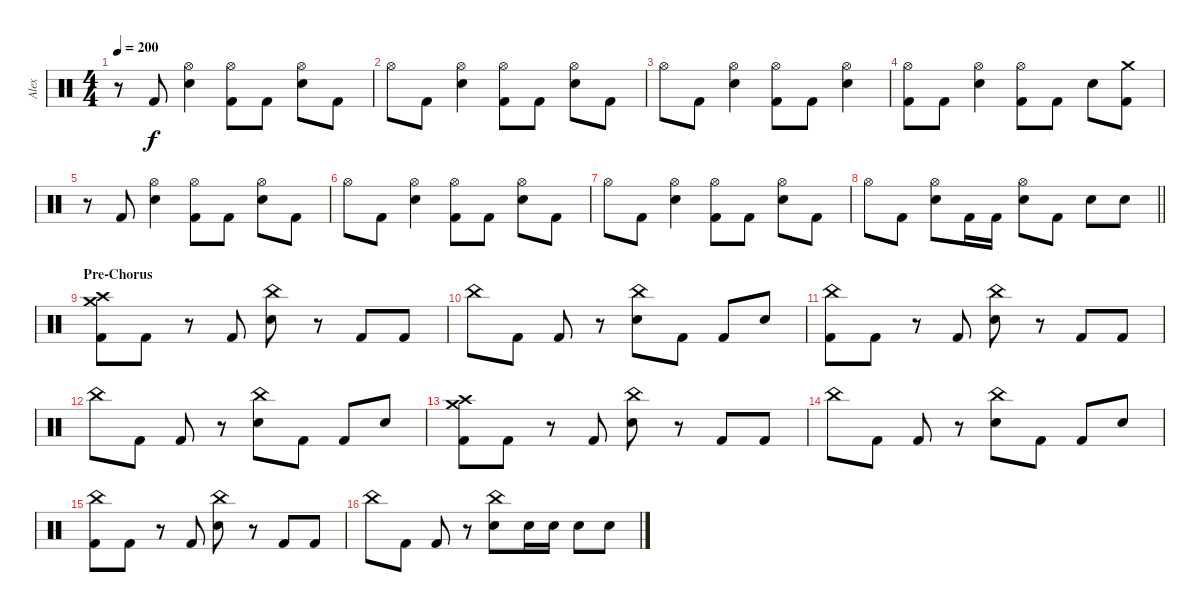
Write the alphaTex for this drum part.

\track ("Alex" "Alex") {instrument percussion}
\staff {score}
\articulation defaults
\ts (4 4)
\tempo 200
\clef neutral
\ks c
r.8{dy f} "Kick (hit) 2".8 ("Hi-Hat (open)" "Electric Snare (hit)").4 ("Hi-Hat (open)" "Kick (hit) 2").8 "Kick (hit) 2".8 ("Hi-Hat (open)" "Electric Snare (hit)").8 "Kick (hit) 2".8 |
"Hi-Hat (open)".8 "Kick (hit) 2".8 ("Hi-Hat (open)" "Electric Snare (hit)").4 ("Hi-Hat (open)" "Kick (hit) 2").8 "Kick (hit) 2".8 ("Hi-Hat (open)" "Electric Snare (hit)").8 "Kick (hit) 2".8 |
"Hi-Hat (open)".8 "Kick (hit) 2".8 ("Hi-Hat (open)" "Electric Snare (hit)").4 ("Hi-Hat (open)" "Kick (hit) 2").8 "Kick (hit) 2".8 ("Hi-Hat (open)" "Electric Snare (hit)").4 |
("Hi-Hat (open)" "Kick (hit) 2").8 "Kick (hit) 2".8 ("Hi-Hat (open)" "Electric Snare (hit)").4 ("Hi-Hat (open)" "Kick (hit) 2").8 "Kick (hit) 2".8 "Electric Snare (hit)".8 ("Crash medium (hit)" "Kick (hit) 2").8 |
r.8 "Kick (hit) 2".8 ("Hi-Hat (open)" "Electric Snare (hit)").4 ("Hi-Hat (open)" "Kick (hit) 2").8 "Kick (hit) 2".8 ("Hi-Hat (open)" "Electric Snare (hit)").8 "Kick (hit) 2".8 |
"Hi-Hat (open)".8 "Kick (hit) 2".8 ("Hi-Hat (open)" "Electric Snare (hit)").4 ("Hi-Hat (open)" "Kick (hit) 2").8 "Kick (hit) 2".8 ("Hi-Hat (open)" "Electric Snare (hit)").8 "Kick (hit) 2".8 |
"Hi-Hat (open)".8 "Kick (hit) 2".8 ("Hi-Hat (open)" "Electric Snare (hit)").4 ("Hi-Hat (open)" "Kick (hit) 2").8 "Kick (hit) 2".8 ("Hi-Hat (open)" "Electric Snare (hit)").8 "Kick (hit) 2".8 |
\barLineRight lightlight "Hi-Hat (open)".8 "Kick (hit) 2".8
("Hi-Hat (open)" "Electric Snare (hit)").8 "Kick (hit) 2".16 "Kick (hit) 2".16 ("Hi-Hat (open)" "Electric Snare (hit)").8 "Kick (hit) 2".8 "Electric Snare (hit)".8 "Electric Snare (hit)".8 |
\section ("" "Pre-Chorus")
("Crash medium (hit)" "Crash high (hit)" "Kick (hit) 2").8 "Kick (hit) 2".8 r.8 "Kick (hit) 2".8 ("China (hit)" "Electric Snare (hit)").8 r.8 "Kick (hit) 2".8 "Kick (hit) 2".8 |
"China (hit)".8 "Kick (hit) 2".8 "Kick (hit) 2".8 r.8 ("China (hit)" "Electric Snare (hit)").8 "Kick (hit) 2".8 "Kick (hit) 2".8 "Electric Snare (hit)".8 |
("China (hit)" "Kick (hit) 2").8 "Kick (hit) 2".8 r.8 "Kick (hit) 2".8 ("China (hit)" "Electric Snare (hit)").8 r.8 "Kick (hit) 2".8 "Kick (hit) 2".8 |
"China (hit)".8 "Kick (hit) 2".8 "Kick (hit) 2".8 r.8 ("China (hit)" "Electric Snare (hit)").8 "Kick (hit) 2".8 "Kick (hit) 2".8 "Electric Snare (hit)".8 |
("Crash medium (hit)" "Crash high (hit)" "Kick (hit) 2").8 "Kick (hit) 2".8 r.8 "Kick (hit) 2".8 ("China (hit)" "Electric Snare (hit)").8 r.8 "Kick (hit) 2".8 "Kick (hit) 2".8 |
"China (hit)".8 "Kick (hit) 2".8 "Kick (hit) 2".8 r.8 ("China (hit)" "Electric Snare (hit)").8 "Kick (hit) 2".8 "Kick (hit) 2".8 "Electric Snare (hit)".8 |
("China (hit)" "Kick (hit) 2").8 "Kick (hit) 2".8 r.8 "Kick (hit) 2".8 ("China (hit)" "Electric Snare (hit)").8 r.8 "Kick (hit) 2".8 "Kick (hit) 2".8 |
"China (hit)".8 "Kick (hit) 2".8 "Kick (hit) 2".8 r.8 ("China (hit)" "Electric Snare (hit)").8 "Electric Snare (hit)".16 "Electric Snare (hit)".16 "Electric Snare (hit)".8 "Electric Snare (hit)".8
